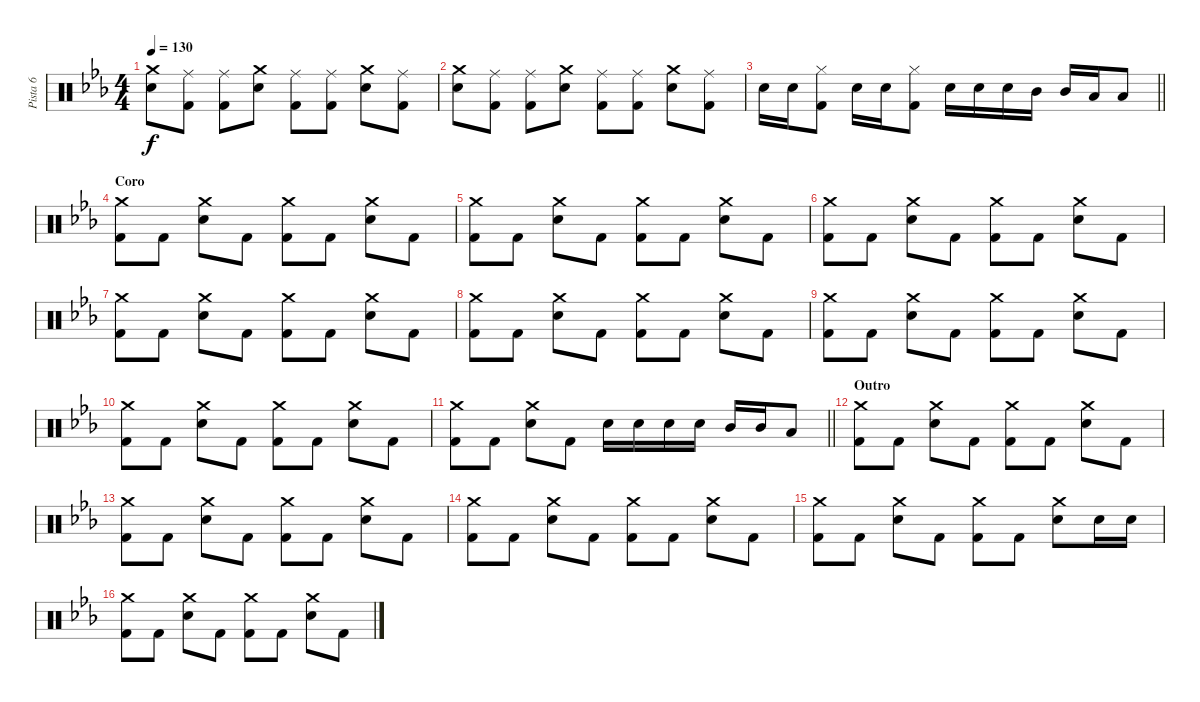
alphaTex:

\track ("Pista 6" "Pista 6") {instrument percussion}
\staff {score}
\articulation defaults
\ts (4 4)
\tempo 130
\clef neutral
\ks eb
("Crash medium (hit)" "Snare (hit) 2").8{dy f} ("Ride (middle)" "Kick (hit) 2").8 ("Ride (middle)" "Kick (hit) 2").8 ("Crash medium (hit)" "Snare (hit) 2").8 ("Ride (middle)" "Kick (hit) 2").8 ("Ride (middle)" "Kick (hit) 2").8 ("Crash medium (hit)" "Snare (hit) 2").8 ("Ride (middle)" "Kick (hit) 2").8 |
("Crash medium (hit)" "Snare (hit) 2").8 ("Ride (middle)" "Kick (hit) 2").8 ("Ride (middle)" "Kick (hit) 2").8 ("Crash medium (hit)" "Snare (hit) 2").8 ("Ride (middle)" "Kick (hit) 2").8 ("Ride (middle)" "Kick (hit) 2").8 ("Crash medium (hit)" "Snare (hit) 2").8 ("Ride (middle)" "Kick (hit) 2").8 |
\barLineRight lightlight "Snare (hit) 2".16 "Snare (hit) 2".16
("Hi-Hat (closed)" "Kick (hit) 2").8 "Snare (hit) 2".16 "Snare (hit) 2".16 ("Hi-Hat (closed)" "Kick (hit) 2").8 "Snare (hit) 2".16 "Snare (hit) 2".16 "Snare (hit) 2".16 "Mid Tom (hit)".16 "Mid Tom (hit)".16 "Low Tom (hit)".16 "Low Tom (hit)".8 |
\section ("" "Coro")
("Crash medium (hit)" "Kick (hit) 2").8 "Kick (hit) 2".8 ("Crash medium (hit)" "Snare (hit) 2").8 "Kick (hit) 2".8 ("Crash medium (hit)" "Kick (hit) 2").8 "Kick (hit) 2".8 ("Crash medium (hit)" "Snare (hit) 2").8 "Kick (hit) 2".8 |
("Crash medium (hit)" "Kick (hit) 2").8 "Kick (hit) 2".8 ("Crash medium (hit)" "Snare (hit) 2").8 "Kick (hit) 2".8 ("Crash medium (hit)" "Kick (hit) 2").8 "Kick (hit) 2".8 ("Crash medium (hit)" "Snare (hit) 2").8 "Kick (hit) 2".8 |
("Crash medium (hit)" "Kick (hit) 2").8 "Kick (hit) 2".8 ("Crash medium (hit)" "Snare (hit) 2").8 "Kick (hit) 2".8 ("Crash medium (hit)" "Kick (hit) 2").8 "Kick (hit) 2".8 ("Crash medium (hit)" "Snare (hit) 2").8 "Kick (hit) 2".8 |
("Crash medium (hit)" "Kick (hit) 2").8 "Kick (hit) 2".8 ("Crash medium (hit)" "Snare (hit) 2").8 "Kick (hit) 2".8 ("Crash medium (hit)" "Kick (hit) 2").8 "Kick (hit) 2".8 ("Crash medium (hit)" "Snare (hit) 2").8 "Kick (hit) 2".8 |
("Crash medium (hit)" "Kick (hit) 2").8 "Kick (hit) 2".8 ("Crash medium (hit)" "Snare (hit) 2").8 "Kick (hit) 2".8 ("Crash medium (hit)" "Kick (hit) 2").8 "Kick (hit) 2".8 ("Crash medium (hit)" "Snare (hit) 2").8 "Kick (hit) 2".8 |
("Crash medium (hit)" "Kick (hit) 2").8 "Kick (hit) 2".8 ("Crash medium (hit)" "Snare (hit) 2").8 "Kick (hit) 2".8 ("Crash medium (hit)" "Kick (hit) 2").8 "Kick (hit) 2".8 ("Crash medium (hit)" "Snare (hit) 2").8 "Kick (hit) 2".8 |
("Crash medium (hit)" "Kick (hit) 2").8 "Kick (hit) 2".8 ("Crash medium (hit)" "Snare (hit) 2").8 "Kick (hit) 2".8 ("Crash medium (hit)" "Kick (hit) 2").8 "Kick (hit) 2".8 ("Crash medium (hit)" "Snare (hit) 2").8 "Kick (hit) 2".8 |
\barLineRight lightlight
("Crash medium (hit)" "Kick (hit) 2").8 "Kick (hit) 2".8 ("Crash medium (hit)" "Snare (hit) 2").8 "Kick (hit) 2".8 "Snare (hit) 2".16 "Snare (hit) 2".16 "Snare (hit) 2".16 "Snare (hit) 2".16 "Mid Tom (hit)".16 "Mid Tom (hit)".16 "Low Tom (hit)".8 |
\section ("" "Outro")
("Crash medium (hit)" "Kick (hit) 2").8 "Kick (hit) 2".8 ("Crash medium (hit)" "Snare (hit) 2").8 "Kick (hit) 2".8 ("Crash medium (hit)" "Kick (hit) 2").8 "Kick (hit) 2".8 ("Crash medium (hit)" "Snare (hit) 2").8 "Kick (hit) 2".8 |
("Crash medium (hit)" "Kick (hit) 2").8 "Kick (hit) 2".8 ("Crash medium (hit)" "Snare (hit) 2").8 "Kick (hit) 2".8 ("Crash medium (hit)" "Kick (hit) 2").8 "Kick (hit) 2".8 ("Crash medium (hit)" "Snare (hit) 2").8 "Kick (hit) 2".8 |
("Crash medium (hit)" "Kick (hit) 2").8 "Kick (hit) 2".8 ("Crash medium (hit)" "Snare (hit) 2").8 "Kick (hit) 2".8 ("Crash medium (hit)" "Kick (hit) 2").8 "Kick (hit) 2".8 ("Crash medium (hit)" "Snare (hit) 2").8 "Kick (hit) 2".8 |
("Crash medium (hit)" "Kick (hit) 2").8 "Kick (hit) 2".8 ("Crash medium (hit)" "Snare (hit) 2").8 "Kick (hit) 2".8 ("Crash medium (hit)" "Kick (hit) 2").8 "Kick (hit) 2".8 ("Crash medium (hit)" "Snare (hit) 2").8 "Snare (hit) 2".16 "Snare (hit) 2".16 |
("Crash medium (hit)" "Kick (hit) 2").8 "Kick (hit) 2".8 ("Crash medium (hit)" "Snare (hit) 2").8 "Kick (hit) 2".8 ("Crash medium (hit)" "Kick (hit) 2").8 "Kick (hit) 2".8 ("Crash medium (hit)" "Snare (hit) 2").8 "Kick (hit) 2".8
